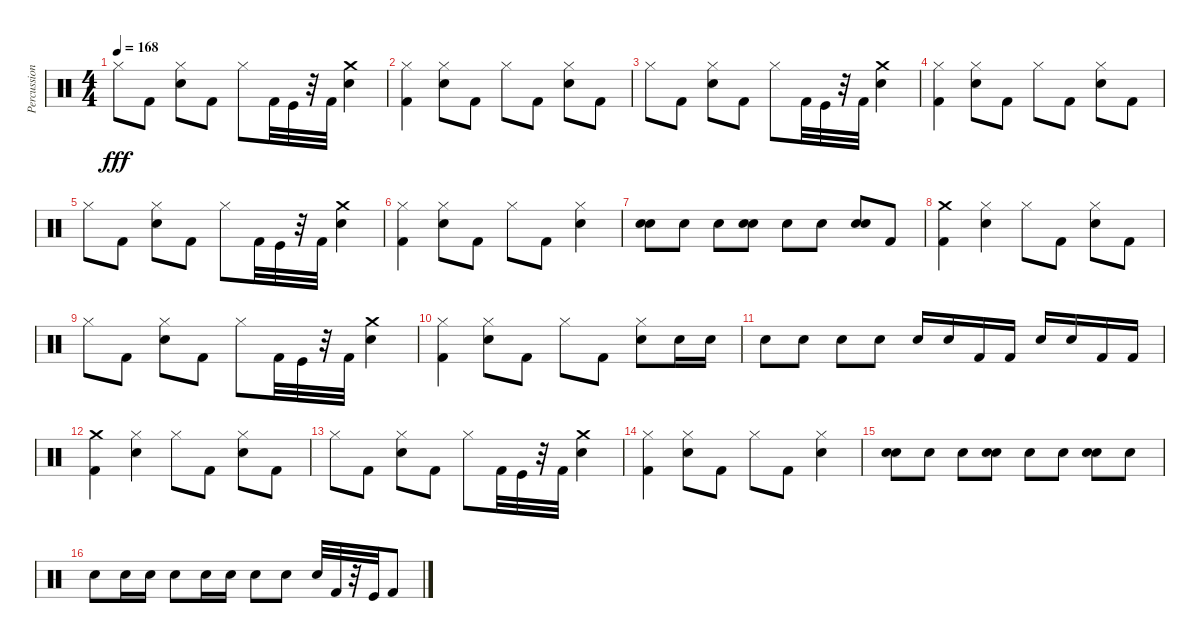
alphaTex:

\track ("Percussion" "Percussion") {instrument percussion}
\staff {score}
\articulation defaults
\ts (4 4)
\tempo 168
\clef neutral
\ks c "Hi-Hat (closed)".8{dy fff} "Kick (hit) 2".8
("Snare (hit) 2" "Hi-Hat (closed)").8 "Kick (hit) 2".8 "Hi-Hat (closed)".8 "Kick (hit) 2".32 "Kick (hit)".32 r.32 "Kick (hit) 2".32 ("Crash medium (hit)" "Snare (hit) 2").4 |
("Hi-Hat (closed)" "Kick (hit) 2").4 ("Hi-Hat (closed)" "Snare (hit) 2").8 "Kick (hit) 2".8 "Hi-Hat (closed)".8 "Kick (hit) 2".8 ("Snare (hit) 2" "Hi-Hat (closed)").8 "Kick (hit) 2".8 |
"Hi-Hat (closed)".8 "Kick (hit) 2".8 ("Snare (hit) 2" "Hi-Hat (closed)").8 "Kick (hit) 2".8 "Hi-Hat (closed)".8 "Kick (hit) 2".32 "Kick (hit)".32 r.32 "Kick (hit) 2".32 ("Crash medium (hit)" "Snare (hit) 2").4 |
("Hi-Hat (closed)" "Kick (hit) 2").4 ("Hi-Hat (closed)" "Snare (hit) 2").8 "Kick (hit) 2".8 "Hi-Hat (closed)".8 "Kick (hit) 2".8 ("Snare (hit) 2" "Hi-Hat (closed)").8 "Kick (hit) 2".8 |
"Hi-Hat (closed)".8 "Kick (hit) 2".8 ("Snare (hit) 2" "Hi-Hat (closed)").8 "Kick (hit) 2".8 "Hi-Hat (closed)".8 "Kick (hit) 2".32 "Kick (hit)".32 r.32 "Kick (hit) 2".32 ("Crash medium (hit)" "Snare (hit) 2").4 |
("Kick (hit) 2" "Hi-Hat (closed)").4 ("Hi-Hat (closed)" "Snare (hit) 2").8 "Kick (hit) 2".8 "Hi-Hat (closed)".8 "Kick (hit) 2".8 ("Snare (hit) 2" "Hi-Hat (closed)").4 |
("Snare (hit) 2" "Snare (hit) 2").8 "Snare (hit) 2".8 "Snare (hit) 2".8 ("Snare (hit) 2" "Snare (hit) 2").8 "Snare (hit) 2".8 "Snare (hit) 2".8 ("Snare (hit) 2" "Snare (hit) 2").8 "Kick (hit) 2".8 |
("Kick (hit) 2" "Crash medium (hit)").4 ("Hi-Hat (closed)" "Snare (hit) 2").4 "Hi-Hat (closed)".8 "Kick (hit) 2".8 ("Snare (hit) 2" "Hi-Hat (closed)").8 "Kick (hit) 2".8 |
"Hi-Hat (closed)".8 "Kick (hit) 2".8 ("Snare (hit) 2" "Hi-Hat (closed)").8 "Kick (hit) 2".8 "Hi-Hat (closed)".8 "Kick (hit) 2".32 "Kick (hit)".32 r.32 "Kick (hit) 2".32 ("Crash medium (hit)" "Snare (hit) 2").4 |
("Hi-Hat (closed)" "Kick (hit) 2").4 ("Snare (hit) 2" "Hi-Hat (closed)").8 "Kick (hit) 2".8 "Hi-Hat (closed)".8 "Kick (hit) 2".8 ("Snare (hit) 2" "Hi-Hat (closed)").8 "Snare (hit) 2".16 "Snare (hit) 2".16 |
"Snare (hit) 2".8 "Snare (hit) 2".8 "Snare (hit) 2".8 "Snare (hit) 2".8 "Snare (hit) 2".16 "Snare (hit) 2".16 "Kick (hit) 2".16 "Kick (hit) 2".16 "Snare (hit) 2".16 "Snare (hit) 2".16 "Kick (hit) 2".16 "Kick (hit) 2".16 |
("Kick (hit) 2" "Crash medium (hit)").4 ("Hi-Hat (closed)" "Snare (hit) 2").4 "Hi-Hat (closed)".8 "Kick (hit) 2".8 ("Snare (hit) 2" "Hi-Hat (closed)").8 "Kick (hit) 2".8 |
"Hi-Hat (closed)".8 "Kick (hit) 2".8 ("Snare (hit) 2" "Hi-Hat (closed)").8 "Kick (hit) 2".8 "Hi-Hat (closed)".8 "Kick (hit) 2".32 "Kick (hit)".32 r.32 "Kick (hit) 2".32 ("Crash medium (hit)" "Snare (hit) 2").4 |
("Hi-Hat (closed)" "Kick (hit) 2").4 ("Snare (hit) 2" "Hi-Hat (closed)").8 "Kick (hit) 2".8 "Hi-Hat (closed)".8 "Kick (hit) 2".8 ("Snare (hit) 2" "Hi-Hat (closed)").4 |
("Snare (hit) 2" "Snare (hit) 2").8 "Snare (hit) 2".8 "Snare (hit) 2".8 ("Snare (hit) 2" "Snare (hit) 2").8 "Snare (hit) 2".8 "Snare (hit) 2".8 ("Snare (hit) 2" "Snare (hit) 2").8 "Snare (hit) 2".8 |
"Snare (hit) 2".8 "Snare (hit) 2".16 "Snare (hit) 2".16 "Snare (hit) 2".8 "Snare (hit) 2".16 "Snare (hit) 2".16 "Snare (hit) 2".8 "Snare (hit) 2".8 "Snare (hit) 2".32 "Kick (hit) 2".32 r.32 "Kick (hit)".32 "Kick (hit) 2".8
